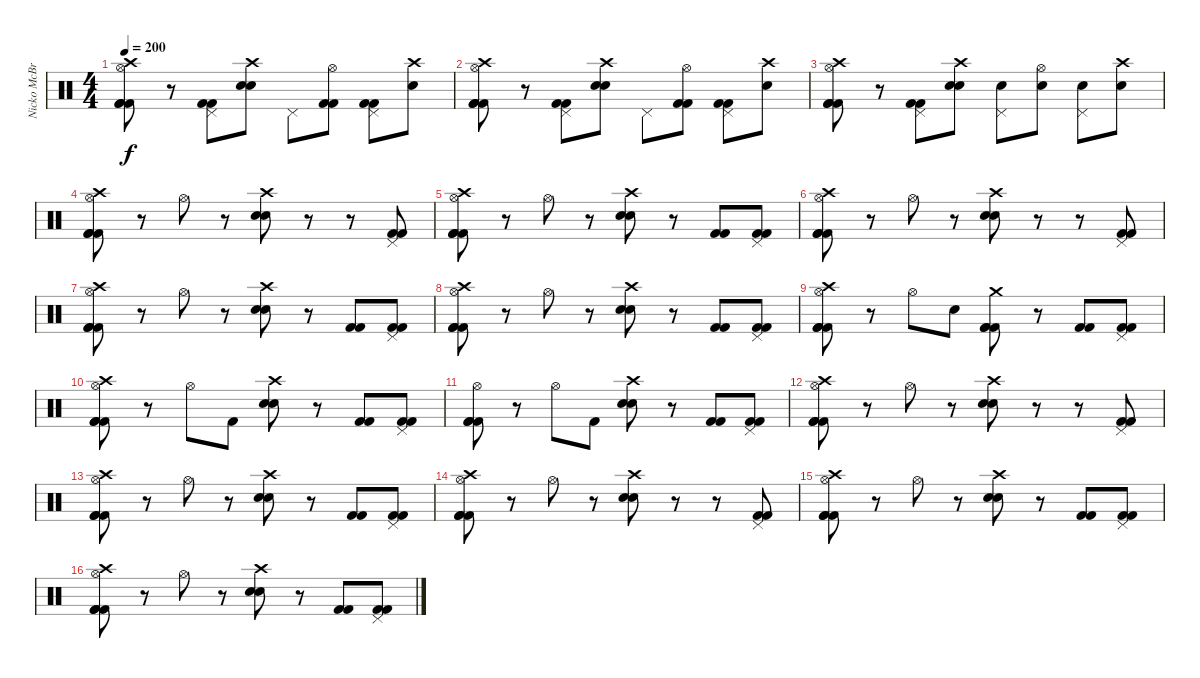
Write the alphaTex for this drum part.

\track ("Nicko McBrain" "Nicko McBr") {instrument percussion}
\staff {score}
\articulation defaults
\ts (4 4)
\tempo 200
\clef neutral
\ks c
("Crash high (hit)" "Hi-Hat (open)" "Kick (hit) 2" "Kick (hit) 2" "Kick (hit) 2").8{dy f} r.8 ("Pedal Hi-Hat (hit)" "Kick (hit) 2" "Kick (hit) 2").8 ("Crash high (hit)" "Snare (hit) 2" "Snare (hit) 2").8 "Pedal Hi-Hat (hit)".8 ("Hi-Hat (open)" "Kick (hit) 2" "Kick (hit) 2").8 ("Pedal Hi-Hat (hit)" "Kick (hit) 2" "Kick (hit) 2").8 ("Crash high (hit)" "Snare (hit) 2").8 |
("Crash high (hit)" "Hi-Hat (open)" "Kick (hit) 2" "Kick (hit) 2" "Kick (hit) 2").8 r.8 ("Pedal Hi-Hat (hit)" "Kick (hit) 2" "Kick (hit) 2").8 ("Crash high (hit)" "Snare (hit) 2" "Snare (hit) 2").8 "Pedal Hi-Hat (hit)".8 ("Hi-Hat (open)" "Kick (hit) 2" "Kick (hit) 2").8 ("Pedal Hi-Hat (hit)" "Kick (hit) 2" "Kick (hit) 2").8 ("Crash high (hit)" "Snare (hit) 2").8 |
("Crash high (hit)" "Hi-Hat (open)" "Kick (hit) 2" "Kick (hit) 2" "Kick (hit) 2").8 r.8 ("Pedal Hi-Hat (hit)" "Kick (hit) 2" "Kick (hit) 2").8 ("Crash high (hit)" "Snare (hit) 2" "Snare (hit) 2").8 ("Pedal Hi-Hat (hit)" "Snare (hit) 2").8 ("Hi-Hat (open)" "Snare (hit) 2").8 ("Pedal Hi-Hat (hit)" "Snare (hit) 2").8 ("Crash high (hit)" "Snare (hit) 2").8 |
("Crash high (hit)" "Hi-Hat (open)" "Kick (hit) 2" "Kick (hit) 2" "Kick (hit) 2").8 r.8 "Hi-Hat (open)".8 r.8 ("Crash high (hit)" "Snare (hit) 2" "Snare (hit) 2").8 r.8 r.8 ("Pedal Hi-Hat (hit)" "Kick (hit) 2" "Kick (hit) 2").8 |
("Crash high (hit)" "Hi-Hat (open)" "Kick (hit) 2" "Kick (hit) 2" "Kick (hit) 2").8 r.8 "Hi-Hat (open)".8 r.8 ("Crash high (hit)" "Snare (hit) 2" "Snare (hit) 2").8 r.8 ("Kick (hit) 2" "Kick (hit) 2").8 ("Pedal Hi-Hat (hit)" "Kick (hit) 2" "Kick (hit) 2").8 |
("Crash high (hit)" "Hi-Hat (open)" "Kick (hit) 2" "Kick (hit) 2" "Kick (hit) 2").8 r.8 "Hi-Hat (open)".8 r.8 ("Crash high (hit)" "Snare (hit) 2" "Snare (hit) 2").8 r.8 r.8 ("Pedal Hi-Hat (hit)" "Kick (hit) 2" "Kick (hit) 2").8 |
("Crash high (hit)" "Hi-Hat (open)" "Kick (hit) 2" "Kick (hit) 2" "Kick (hit) 2").8 r.8 "Hi-Hat (open)".8 r.8 ("Crash high (hit)" "Snare (hit) 2" "Snare (hit) 2").8 r.8 ("Kick (hit) 2" "Kick (hit) 2").8 ("Pedal Hi-Hat (hit)" "Kick (hit) 2" "Kick (hit) 2").8 |
("Crash high (hit)" "Hi-Hat (open)" "Kick (hit) 2" "Kick (hit) 2" "Kick (hit) 2").8 r.8 "Hi-Hat (open)".8 r.8 ("Crash high (hit)" "Snare (hit) 2" "Snare (hit) 2").8 r.8 ("Kick (hit) 2" "Kick (hit) 2").8 ("Pedal Hi-Hat (hit)" "Kick (hit) 2" "Kick (hit) 2").8 |
("Crash high (hit)" "Hi-Hat (open)" "Kick (hit) 2" "Kick (hit) 2" "Kick (hit) 2").8 r.8 "Hi-Hat (open)".8 "Snare (hit) 2".8 ("Crash medium (hit)" "Kick (hit) 2" "Kick (hit) 2" "Kick (hit) 2").8 r.8 ("Kick (hit) 2" "Kick (hit) 2").8 ("Pedal Hi-Hat (hit)" "Kick (hit) 2" "Kick (hit) 2").8 |
("Crash high (hit)" "Hi-Hat (open)" "Kick (hit) 2" "Kick (hit) 2" "Kick (hit) 2").8 r.8 "Hi-Hat (open)".8 "Kick (hit) 2".8 ("Crash high (hit)" "Snare (hit) 2" "Snare (hit) 2").8 r.8 ("Kick (hit) 2" "Kick (hit) 2").8 ("Pedal Hi-Hat (hit)" "Kick (hit) 2" "Kick (hit) 2").8 |
("Hi-Hat (open)" "Kick (hit) 2" "Kick (hit) 2" "Kick (hit) 2").8 r.8 "Hi-Hat (open)".8 "Kick (hit) 2".8 ("Crash high (hit)" "Snare (hit) 2" "Snare (hit) 2").8 r.8 ("Kick (hit) 2" "Kick (hit) 2").8 ("Pedal Hi-Hat (hit)" "Kick (hit) 2" "Kick (hit) 2").8 |
("Crash high (hit)" "Hi-Hat (open)" "Kick (hit) 2" "Kick (hit) 2" "Kick (hit) 2").8 r.8 "Hi-Hat (open)".8 r.8 ("Crash high (hit)" "Snare (hit) 2" "Snare (hit) 2").8 r.8 r.8 ("Pedal Hi-Hat (hit)" "Kick (hit) 2" "Kick (hit) 2").8 |
("Crash high (hit)" "Hi-Hat (open)" "Kick (hit) 2" "Kick (hit) 2" "Kick (hit) 2").8 r.8 "Hi-Hat (open)".8 r.8 ("Crash high (hit)" "Snare (hit) 2" "Snare (hit) 2").8 r.8 ("Kick (hit) 2" "Kick (hit) 2").8 ("Pedal Hi-Hat (hit)" "Kick (hit) 2" "Kick (hit) 2").8 |
("Crash high (hit)" "Hi-Hat (open)" "Kick (hit) 2" "Kick (hit) 2" "Kick (hit) 2").8 r.8 "Hi-Hat (open)".8 r.8 ("Crash high (hit)" "Snare (hit) 2" "Snare (hit) 2").8 r.8 r.8 ("Pedal Hi-Hat (hit)" "Kick (hit) 2" "Kick (hit) 2").8 |
("Crash high (hit)" "Hi-Hat (open)" "Kick (hit) 2" "Kick (hit) 2" "Kick (hit) 2").8 r.8 "Hi-Hat (open)".8 r.8 ("Crash high (hit)" "Snare (hit) 2" "Snare (hit) 2").8 r.8 ("Kick (hit) 2" "Kick (hit) 2").8 ("Pedal Hi-Hat (hit)" "Kick (hit) 2" "Kick (hit) 2").8 |
("Crash high (hit)" "Hi-Hat (open)" "Kick (hit) 2" "Kick (hit) 2" "Kick (hit) 2").8 r.8 "Hi-Hat (open)".8 r.8 ("Crash high (hit)" "Snare (hit) 2" "Snare (hit) 2").8 r.8 ("Kick (hit) 2" "Kick (hit) 2").8 ("Pedal Hi-Hat (hit)" "Kick (hit) 2" "Kick (hit) 2").8
